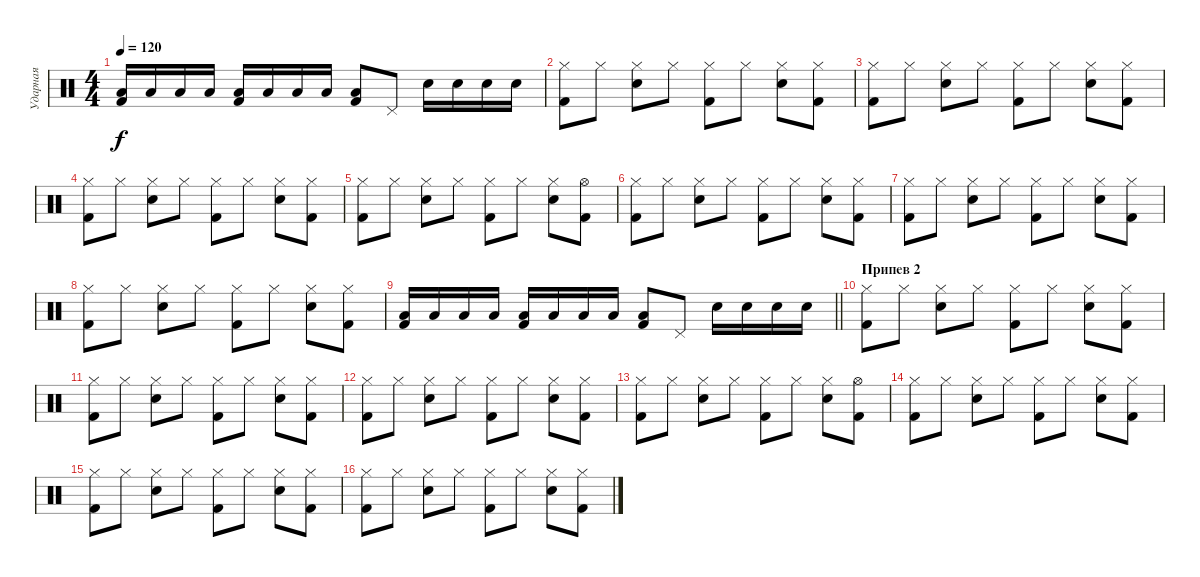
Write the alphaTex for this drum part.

\track ("Ударная" "Ударная") {instrument percussion}
\staff {score}
\articulation defaults
\ts (4 4)
\tempo 120
\clef neutral
\ks c
("Low Tom (hit)" "Kick (hit) 2").16{dy f} "Low Tom (hit)".16 "Low Tom (hit)".16 "Low Tom (hit)".16 ("Low Tom (hit)" "Kick (hit) 2").16 "Low Tom (hit)".16 "Low Tom (hit)".16 "Low Tom (hit)".16 ("Low Tom (hit)" "Kick (hit) 2").8 "Pedal Hi-Hat (hit)".8 "Snare (hit) 2".16 "Snare (hit) 2".16 "Snare (hit) 2".16 "Snare (hit) 2".16 |
("Hi-Hat (closed)" "Kick (hit) 2").8 "Hi-Hat (closed)".8 ("Hi-Hat (closed)" "Electric Snare (hit)").8 "Hi-Hat (closed)".8 ("Hi-Hat (closed)" "Kick (hit) 2").8 "Hi-Hat (closed)".8 ("Hi-Hat (closed)" "Electric Snare (hit)").8 ("Hi-Hat (closed)" "Kick (hit) 2").8 |
("Hi-Hat (closed)" "Kick (hit) 2").8 "Hi-Hat (closed)".8 ("Hi-Hat (closed)" "Electric Snare (hit)").8 "Hi-Hat (closed)".8 ("Hi-Hat (closed)" "Kick (hit) 2").8 "Hi-Hat (closed)".8 ("Hi-Hat (closed)" "Electric Snare (hit)").8 ("Hi-Hat (closed)" "Kick (hit) 2").8 |
("Hi-Hat (closed)" "Kick (hit) 2").8 "Hi-Hat (closed)".8 ("Hi-Hat (closed)" "Electric Snare (hit)").8 "Hi-Hat (closed)".8 ("Hi-Hat (closed)" "Kick (hit) 2").8 "Hi-Hat (closed)".8 ("Hi-Hat (closed)" "Electric Snare (hit)").8 ("Hi-Hat (closed)" "Kick (hit) 2").8 |
("Hi-Hat (closed)" "Kick (hit) 2").8 "Hi-Hat (closed)".8 ("Hi-Hat (closed)" "Electric Snare (hit)").8 "Hi-Hat (closed)".8 ("Hi-Hat (closed)" "Kick (hit) 2").8 "Hi-Hat (closed)".8 ("Hi-Hat (closed)" "Electric Snare (hit)").8 ("Hi-Hat (open)" "Kick (hit) 2").8 |
("Hi-Hat (closed)" "Kick (hit) 2").8 "Hi-Hat (closed)".8 ("Hi-Hat (closed)" "Electric Snare (hit)").8 "Hi-Hat (closed)".8 ("Hi-Hat (closed)" "Kick (hit) 2").8 "Hi-Hat (closed)".8 ("Hi-Hat (closed)" "Electric Snare (hit)").8 ("Hi-Hat (closed)" "Kick (hit) 2").8 |
("Hi-Hat (closed)" "Kick (hit) 2").8 "Hi-Hat (closed)".8 ("Hi-Hat (closed)" "Electric Snare (hit)").8 "Hi-Hat (closed)".8 ("Hi-Hat (closed)" "Kick (hit) 2").8 "Hi-Hat (closed)".8 ("Hi-Hat (closed)" "Electric Snare (hit)").8 ("Hi-Hat (closed)" "Kick (hit) 2").8 |
("Hi-Hat (closed)" "Kick (hit) 2").8 "Hi-Hat (closed)".8 ("Hi-Hat (closed)" "Electric Snare (hit)").8 "Hi-Hat (closed)".8 ("Hi-Hat (closed)" "Kick (hit) 2").8 "Hi-Hat (closed)".8 ("Hi-Hat (closed)" "Electric Snare (hit)").8 ("Hi-Hat (closed)" "Kick (hit) 2").8 |
\barLineRight lightlight
("Low Tom (hit)" "Kick (hit) 2").16 "Low Tom (hit)".16 "Low Tom (hit)".16 "Low Tom (hit)".16 ("Low Tom (hit)" "Kick (hit) 2").16 "Low Tom (hit)".16 "Low Tom (hit)".16 "Low Tom (hit)".16 ("Low Tom (hit)" "Kick (hit) 2").8 "Pedal Hi-Hat (hit)".8 "Snare (hit) 2".16 "Snare (hit) 2".16 "Snare (hit) 2".16 "Snare (hit) 2".16 |
\section ("" "Припев 2")
("Hi-Hat (closed)" "Kick (hit) 2").8 "Hi-Hat (closed)".8 ("Hi-Hat (closed)" "Electric Snare (hit)").8 "Hi-Hat (closed)".8 ("Hi-Hat (closed)" "Kick (hit) 2").8 "Hi-Hat (closed)".8 ("Hi-Hat (closed)" "Electric Snare (hit)").8 ("Hi-Hat (closed)" "Kick (hit) 2").8 |
("Hi-Hat (closed)" "Kick (hit) 2").8 "Hi-Hat (closed)".8 ("Hi-Hat (closed)" "Electric Snare (hit)").8 "Hi-Hat (closed)".8 ("Hi-Hat (closed)" "Kick (hit) 2").8 "Hi-Hat (closed)".8 ("Hi-Hat (closed)" "Electric Snare (hit)").8 ("Hi-Hat (closed)" "Kick (hit) 2").8 |
("Hi-Hat (closed)" "Kick (hit) 2").8 "Hi-Hat (closed)".8 ("Hi-Hat (closed)" "Electric Snare (hit)").8 "Hi-Hat (closed)".8 ("Hi-Hat (closed)" "Kick (hit) 2").8 "Hi-Hat (closed)".8 ("Hi-Hat (closed)" "Electric Snare (hit)").8 ("Hi-Hat (closed)" "Kick (hit) 2").8 |
("Hi-Hat (closed)" "Kick (hit) 2").8 "Hi-Hat (closed)".8 ("Hi-Hat (closed)" "Electric Snare (hit)").8 "Hi-Hat (closed)".8 ("Hi-Hat (closed)" "Kick (hit) 2").8 "Hi-Hat (closed)".8 ("Hi-Hat (closed)" "Electric Snare (hit)").8 ("Hi-Hat (open)" "Kick (hit) 2").8 |
("Hi-Hat (closed)" "Kick (hit) 2").8 "Hi-Hat (closed)".8 ("Hi-Hat (closed)" "Electric Snare (hit)").8 "Hi-Hat (closed)".8 ("Hi-Hat (closed)" "Kick (hit) 2").8 "Hi-Hat (closed)".8 ("Hi-Hat (closed)" "Electric Snare (hit)").8 ("Hi-Hat (closed)" "Kick (hit) 2").8 |
("Hi-Hat (closed)" "Kick (hit) 2").8 "Hi-Hat (closed)".8 ("Hi-Hat (closed)" "Electric Snare (hit)").8 "Hi-Hat (closed)".8 ("Hi-Hat (closed)" "Kick (hit) 2").8 "Hi-Hat (closed)".8 ("Hi-Hat (closed)" "Electric Snare (hit)").8 ("Hi-Hat (closed)" "Kick (hit) 2").8 |
("Hi-Hat (closed)" "Kick (hit) 2").8 "Hi-Hat (closed)".8 ("Hi-Hat (closed)" "Electric Snare (hit)").8 "Hi-Hat (closed)".8 ("Hi-Hat (closed)" "Kick (hit) 2").8 "Hi-Hat (closed)".8 ("Hi-Hat (closed)" "Electric Snare (hit)").8 ("Hi-Hat (closed)" "Kick (hit) 2").8
